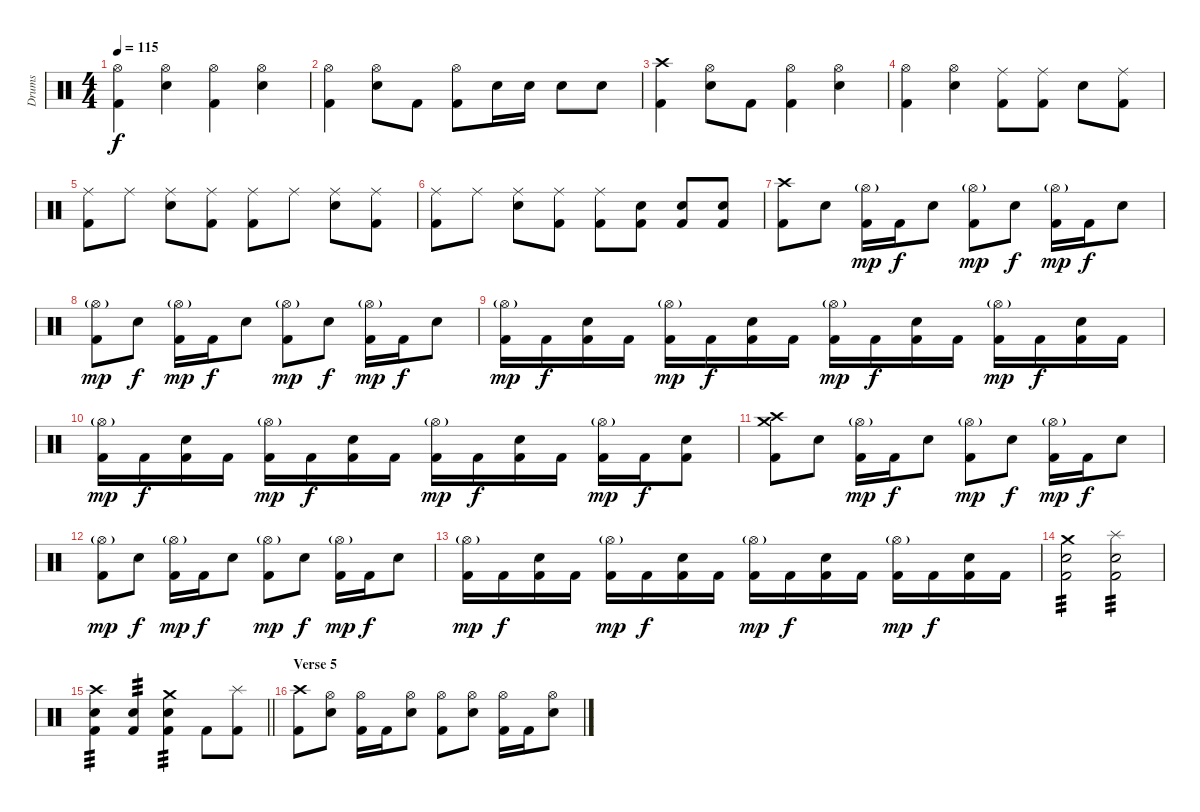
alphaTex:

\track ("Drums" "Drums") {instrument percussion}
\staff {score}
\articulation defaults
\ts (4 4)
\tempo 115
\clef neutral
\ks c
("Hi-Hat (open)" "Kick (hit) 2").4{dy f} ("Hi-Hat (open)" "Electric Snare (hit)").4 ("Hi-Hat (open)" "Kick (hit) 2").4 ("Hi-Hat (open)" "Electric Snare (hit)").4 |
("Hi-Hat (open)" "Kick (hit) 2").4 ("Hi-Hat (open)" "Electric Snare (hit)").8 "Kick (hit) 2".8 ("Hi-Hat (open)" "Kick (hit) 2").8 "Electric Snare (hit)".16 "Electric Snare (hit)".16 "Electric Snare (hit)".8 "Electric Snare (hit)".8 |
("Crash high (hit)" "Kick (hit) 2").4 ("Hi-Hat (open)" "Electric Snare (hit)").8 "Kick (hit) 2".8 ("Hi-Hat (open)" "Kick (hit) 2").4 ("Hi-Hat (open)" "Electric Snare (hit)").4 |
("Hi-Hat (open)" "Kick (hit) 2").4 ("Hi-Hat (open)" "Electric Snare (hit)").4 ("Ride (middle)" "Kick (hit) 2").8 ("Ride (middle)" "Kick (hit) 2").8 "Electric Snare (hit)".8 ("Ride (middle)" "Kick (hit) 2").8 |
("Ride (middle)" "Kick (hit) 2").8 "Ride (middle)".8 ("Ride (middle)" "Electric Snare (hit)").8 ("Ride (middle)" "Kick (hit) 2").8 ("Ride (middle)" "Kick (hit) 2").8 "Ride (middle)".8 ("Ride (middle)" "Electric Snare (hit)").8 ("Ride (middle)" "Kick (hit) 2").8 |
("Ride (middle)" "Kick (hit) 2").8 "Ride (middle)".8 ("Ride (middle)" "Electric Snare (hit)").8 ("Ride (middle)" "Kick (hit) 2").8 ("Ride (middle)" "Kick (hit) 2").8 ("Electric Snare (hit)" "Kick (hit) 2").8 ("Electric Snare (hit)" "Kick (hit) 2").8 ("Electric Snare (hit)" "Kick (hit) 2").8 |
("Crash high (hit)" "Kick (hit) 2").8 "Electric Snare (hit)".8 ("Hi-Hat (open)"{g} "Kick (hit) 2").16{dy mp} "Kick (hit) 2".16{dy f} "Electric Snare (hit)".8 ("Hi-Hat (open)"{g} "Kick (hit) 2").8{dy mp} "Electric Snare (hit)".8{dy f} ("Hi-Hat (open)"{g} "Kick (hit) 2").16{dy mp} "Kick (hit) 2".16{dy f} "Electric Snare (hit)".8 |
("Hi-Hat (open)"{g} "Kick (hit) 2").8{dy mp} "Electric Snare (hit)".8{dy f} ("Hi-Hat (open)"{g} "Kick (hit) 2").16{dy mp} "Kick (hit) 2".16{dy f} "Electric Snare (hit)".8 ("Hi-Hat (open)"{g} "Kick (hit) 2").8{dy mp} "Electric Snare (hit)".8{dy f} ("Hi-Hat (open)"{g} "Kick (hit) 2").16{dy mp} "Kick (hit) 2".16{dy f} "Electric Snare (hit)".8 |
("Hi-Hat (open)"{g} "Kick (hit) 2").16{dy mp} "Kick (hit) 2".16{dy f} ("Electric Snare (hit)" "Kick (hit) 2").16 "Kick (hit) 2".16 ("Hi-Hat (open)"{g} "Kick (hit) 2").16{dy mp} "Kick (hit) 2".16{dy f} ("Electric Snare (hit)" "Kick (hit) 2").16 "Kick (hit) 2".16 ("Hi-Hat (open)"{g} "Kick (hit) 2").16{dy mp} "Kick (hit) 2".16{dy f} ("Electric Snare (hit)" "Kick (hit) 2").16 "Kick (hit) 2".16 ("Hi-Hat (open)"{g} "Kick (hit) 2").16{dy mp} "Kick (hit) 2".16{dy f} ("Electric Snare (hit)" "Kick (hit) 2").16 "Kick (hit) 2".16 |
("Hi-Hat (open)"{g} "Kick (hit) 2").16{dy mp} "Kick (hit) 2".16{dy f} ("Electric Snare (hit)" "Kick (hit) 2").16 "Kick (hit) 2".16 ("Hi-Hat (open)"{g} "Kick (hit) 2").16{dy mp} "Kick (hit) 2".16{dy f} ("Electric Snare (hit)" "Kick (hit) 2").16 "Kick (hit) 2".16 ("Hi-Hat (open)"{g} "Kick (hit) 2").16{dy mp} "Kick (hit) 2".16{dy f} ("Electric Snare (hit)" "Kick (hit) 2").16 "Kick (hit) 2".16 ("Hi-Hat (open)"{g} "Kick (hit) 2").16{dy mp} "Kick (hit) 2".16{dy f} ("Electric Snare (hit)" "Kick (hit) 2").8 |
("Crash high (hit)" "Crash medium (hit)" "Kick (hit) 2").8 "Electric Snare (hit)".8 ("Hi-Hat (open)"{g} "Kick (hit) 2").16{dy mp} "Kick (hit) 2".16{dy f} "Electric Snare (hit)".8 ("Hi-Hat (open)"{g} "Kick (hit) 2").8{dy mp} "Electric Snare (hit)".8{dy f} ("Hi-Hat (open)"{g} "Kick (hit) 2").16{dy mp} "Kick (hit) 2".16{dy f} "Electric Snare (hit)".8 |
("Hi-Hat (open)"{g} "Kick (hit) 2").8{dy mp} "Electric Snare (hit)".8{dy f} ("Hi-Hat (open)"{g} "Kick (hit) 2").16{dy mp} "Kick (hit) 2".16{dy f} "Electric Snare (hit)".8 ("Hi-Hat (open)"{g} "Kick (hit) 2").8{dy mp} "Electric Snare (hit)".8{dy f} ("Hi-Hat (open)"{g} "Kick (hit) 2").16{dy mp} "Kick (hit) 2".16{dy f} "Electric Snare (hit)".8 |
("Hi-Hat (open)"{g} "Kick (hit) 2").16{dy mp} "Kick (hit) 2".16{dy f} ("Electric Snare (hit)" "Kick (hit) 2").16 "Kick (hit) 2".16 ("Hi-Hat (open)"{g} "Kick (hit) 2").16{dy mp} "Kick (hit) 2".16{dy f} ("Electric Snare (hit)" "Kick (hit) 2").16 "Kick (hit) 2".16 ("Hi-Hat (open)"{g} "Kick (hit) 2").16{dy mp} "Kick (hit) 2".16{dy f} ("Electric Snare (hit)" "Kick (hit) 2").16 "Kick (hit) 2".16 ("Hi-Hat (open)"{g} "Kick (hit) 2").16{dy mp} "Kick (hit) 2".16{dy f} ("Electric Snare (hit)" "Kick (hit) 2").16 "Kick (hit) 2".16 |
("Crash medium (hit)" "Electric Snare (hit)" "Kick (hit) 2").2{tp 3} ("Splash (hit)" "Electric Snare (hit)" "Kick (hit) 2").2{tp 3} |
\barLineRight lightlight
("Crash high (hit)" "Electric Snare (hit)" "Kick (hit) 2").4{tp 3} ("Electric Snare (hit)" "Kick (hit) 2").4{tp 3} ("Crash medium (hit)" "Electric Snare (hit)" "Kick (hit) 2").4{tp 3} "Kick (hit) 2".8 ("Splash (hit)" "Kick (hit) 2").8 |
\section ("" "Verse 5")
("Crash high (hit)" "Kick (hit) 2").8 ("Hi-Hat (open)" "Electric Snare (hit)").8 ("Hi-Hat (open)" "Kick (hit) 2").16 "Kick (hit) 2".16 ("Hi-Hat (open)" "Electric Snare (hit)").8 ("Hi-Hat (open)" "Kick (hit) 2").8 ("Hi-Hat (open)" "Electric Snare (hit)").8 ("Hi-Hat (open)" "Kick (hit) 2").16 "Kick (hit) 2".16 ("Hi-Hat (open)" "Electric Snare (hit)").8
